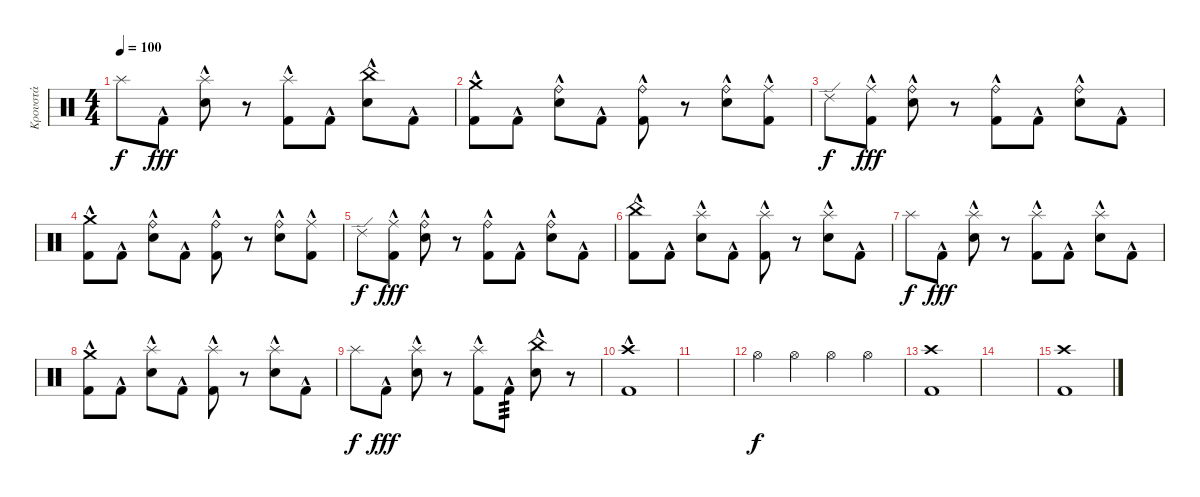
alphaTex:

\track ("Κρουστά" "Κρουστά") {instrument percussion}
\staff {score}
\articulation defaults
\ts (4 4)
\tempo 100
\clef neutral
\ks c "Splash (hit)".8{dy f} "Kick (hit) 2"{hac}.8{dy fff}
("Splash (hit)" "Electric Snare (hit)"{hac}).8 r.8 ("Splash (hit)" "Kick (hit) 2"{hac}).8 "Kick (hit) 2"{hac}.8 ("China (hit)" "Electric Snare (hit)"{hac}).8 "Kick (hit) 2"{hac}.8 |
("Kick (hit) 2"{hac} "Crash medium (hit)").8 "Kick (hit) 2"{hac}.8 ("Electric Snare (hit)"{hac} "Ride (bell)").8 "Kick (hit) 2"{hac}.8 ("Kick (hit) 2"{hac} "Ride (bell)").8 r.8 ("Electric Snare (hit)"{hac} "Ride (bell)").8 ("Kick (hit) 2"{hac} "Ride (middle)").8 |
"Ride (edge) 2".8{dy f} ("Ride (middle)" "Kick (hit) 2"{hac}).8{dy fff} ("Ride (bell)" "Electric Snare (hit)"{hac}).8 r.8 ("Ride (bell)" "Kick (hit) 2"{hac}).8 "Kick (hit) 2"{hac}.8 ("Ride (bell)" "Electric Snare (hit)"{hac}).8 "Kick (hit) 2"{hac}.8 |
("Kick (hit) 2"{hac} "Crash medium (hit)").8 "Kick (hit) 2"{hac}.8 ("Electric Snare (hit)"{hac} "Ride (bell)").8 "Kick (hit) 2"{hac}.8 ("Kick (hit) 2"{hac} "Ride (bell)").8 r.8 ("Electric Snare (hit)"{hac} "Ride (bell)").8 ("Kick (hit) 2"{hac} "Ride (middle)").8 |
"Ride (edge) 2".8{dy f} ("Ride (middle)" "Kick (hit) 2"{hac}).8{dy fff} ("Ride (bell)" "Electric Snare (hit)"{hac}).8 r.8 ("Ride (bell)" "Kick (hit) 2"{hac}).8 "Kick (hit) 2"{hac}.8 ("Ride (bell)" "Electric Snare (hit)"{hac}).8 "Kick (hit) 2"{hac}.8 |
("Kick (hit) 2"{hac} "China (hit)").8 "Kick (hit) 2"{hac}.8 ("Electric Snare (hit)"{hac} "Splash (hit)").8 "Kick (hit) 2"{hac}.8 ("Kick (hit) 2"{hac} "Splash (hit)").8 r.8 ("Electric Snare (hit)"{hac} "Splash (hit)").8 "Kick (hit) 2"{hac}.8 |
"Splash (hit)".8{dy f} "Kick (hit) 2"{hac}.8{dy fff} ("Splash (hit)" "Electric Snare (hit)"{hac}).8 r.8 ("Splash (hit)" "Kick (hit) 2"{hac}).8 "Kick (hit) 2"{hac}.8 ("Splash (hit)" "Electric Snare (hit)"{hac}).8 "Kick (hit) 2"{hac}.8 |
("Kick (hit) 2"{hac} "Crash medium (hit)").8 "Kick (hit) 2"{hac}.8 ("Electric Snare (hit)"{hac} "Splash (hit)").8 "Kick (hit) 2"{hac}.8 ("Kick (hit) 2"{hac} "Splash (hit)").8 r.8 ("Electric Snare (hit)"{hac} "Splash (hit)").8 "Kick (hit) 2"{hac}.8 |
"Splash (hit)".8{dy f} "Kick (hit) 2"{hac}.8{dy fff} ("Splash (hit)" "Electric Snare (hit)"{hac}).8 r.8 ("Splash (hit)" "Kick (hit) 2"{hac}).8 "Kick (hit) 2"{hac}.8{tp 3} ("China (hit)" "Electric Snare (hit)"{hac}).8 r.8 |
("Kick (hit) 2"{hac} "Crash high (hit)").1 |
|
"Hi-Hat (open)".4{dy f} "Hi-Hat (open)".4 "Hi-Hat (open)".4 "Hi-Hat (open)".4 |
("Kick (hit) 2" "Crash high (hit)").1 |
|
("Kick (hit) 2" "Crash high (hit)").1
